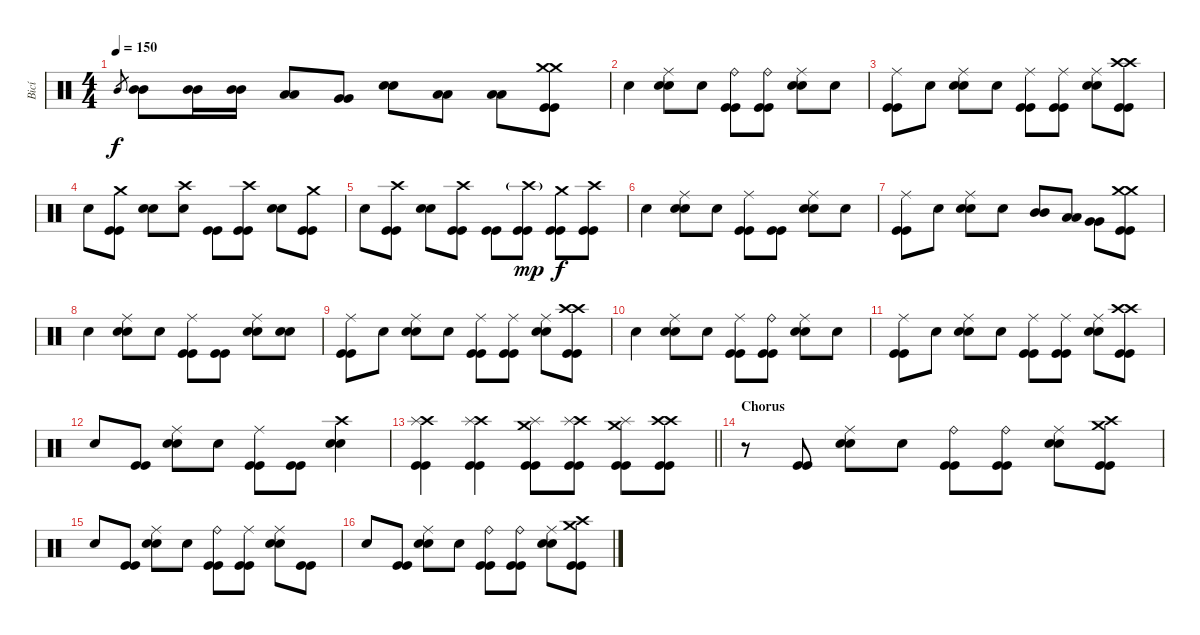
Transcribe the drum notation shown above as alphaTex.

\track ("Bicí" "Bicí") {instrument percussion}
\staff {score}
\articulation defaults
\ts (4 4)
\tempo 150
\clef neutral
\ks c "Mid Tom (hit)".8{gr dy f}
("Mid Tom (hit)" "Mid Tom (hit)").8 ("Mid Tom (hit)" "Mid Tom (hit)").16 ("Mid Tom (hit)" "Mid Tom (hit)").16 ("Low Tom (hit)" "Low Tom (hit)").8 ("Very Low Tom (hit)" "Very Low Tom (hit)").8 ("Electric Snare (hit)" "Electric Snare (hit)").8 ("Low Floor Tom (hit)" "Low Floor Tom (hit)").8 ("Low Floor Tom (hit)" "Low Floor Tom (hit)").8 ("Crash medium (hit)" "Crash medium (hit)" "Kick (hit)" "Kick (hit)").8 |
"Snare (hit)".4 ("Ride (middle)" "Electric Snare (hit)" "Electric Snare (hit)").8 "Snare (hit)".8 ("Ride (bell)" "Kick (hit)" "Kick (hit)").8 ("Ride (bell)" "Kick (hit)" "Kick (hit)").8 ("Ride (middle)" "Electric Snare (hit)" "Electric Snare (hit)").8 "Snare (hit)".8 |
("Ride (middle)" "Kick (hit)" "Kick (hit)").8 "Snare (hit)".8 ("Ride (middle)" "Electric Snare (hit)" "Electric Snare (hit)").8 "Snare (hit)".8 ("Ride (middle)" "Kick (hit)" "Kick (hit)").8 ("Ride (middle)" "Kick (hit)" "Kick (hit)").8 ("Ride (middle)" "Electric Snare (hit)" "Electric Snare (hit)").8 ("Crash high (hit)" "Crash high (hit)" "Kick (hit)" "Kick (hit)").8 |
"Snare (hit)".8 ("Crash medium (hit)" "Kick (hit)" "Kick (hit)").8 ("Electric Snare (hit)" "Electric Snare (hit)").8 ("Crash high (hit)" "Snare (hit)").8 ("Kick (hit)" "Kick (hit)").8 ("Crash high (hit)" "Kick (hit)" "Kick (hit)").8 ("Electric Snare (hit)" "Electric Snare (hit)").8 ("Crash medium (hit)" "Kick (hit)" "Kick (hit)").8 |
"Snare (hit)".8 ("Crash high (hit)" "Kick (hit)" "Kick (hit)").8 ("Electric Snare (hit)" "Electric Snare (hit)").8 ("Crash high (hit)" "Kick (hit)" "Kick (hit)").8 ("Kick (hit)" "Kick (hit)").8 ("Crash high (hit)"{g} "Kick (hit)" "Kick (hit)").8{dy mp} ("Crash medium (hit)" "Kick (hit)" "Kick (hit)").8{dy f} ("Crash high (hit)" "Kick (hit)" "Kick (hit)").8 |
"Snare (hit)".4 ("Ride (middle)" "Electric Snare (hit)" "Electric Snare (hit)").8 "Snare (hit)".8 ("Ride (middle)" "Kick (hit)" "Kick (hit)").8 ("Kick (hit)" "Kick (hit)").8 ("Ride (middle)" "Electric Snare (hit)" "Electric Snare (hit)").8 "Snare (hit)".8 |
("Ride (middle)" "Kick (hit)" "Kick (hit)").8 "Snare (hit)".8 ("Ride (middle)" "Electric Snare (hit)" "Electric Snare (hit)").8 "Snare (hit)".8 ("Mid Tom (hit)" "Mid Tom (hit)").8 ("Low Tom (hit)" "Low Tom (hit)").8 ("Very Low Tom (hit)" "Very Low Tom (hit)").8 ("Crash medium (hit)" "Crash medium (hit)" "Kick (hit)" "Kick (hit)").8 |
"Snare (hit)".4 ("Ride (middle)" "Electric Snare (hit)" "Electric Snare (hit)").8 "Snare (hit)".8 ("Ride (middle)" "Kick (hit)" "Kick (hit)").8 ("Kick (hit)" "Kick (hit)").8 ("Ride (middle)" "Electric Snare (hit)" "Electric Snare (hit)").8 ("Snare (hit)" "Snare (hit)").8 |
("Ride (middle)" "Kick (hit)" "Kick (hit)").8 "Snare (hit)".8 ("Ride (middle)" "Electric Snare (hit)" "Electric Snare (hit)").8 "Snare (hit)".8 ("Ride (middle)" "Kick (hit)" "Kick (hit)").8 ("Ride (middle)" "Kick (hit)" "Kick (hit)").8 ("Ride (middle)" "Electric Snare (hit)" "Electric Snare (hit)").8 ("Crash high (hit)" "Crash high (hit)" "Kick (hit)" "Kick (hit)").8 |
"Snare (hit)".4 ("Ride (middle)" "Electric Snare (hit)" "Electric Snare (hit)").8 "Snare (hit)".8 ("Ride (middle)" "Kick (hit)" "Kick (hit)").8 ("Ride (bell)" "Kick (hit)" "Kick (hit)").8 ("Ride (middle)" "Electric Snare (hit)" "Electric Snare (hit)").8 "Snare (hit)".8 |
("Ride (middle)" "Kick (hit)" "Kick (hit)").8 "Snare (hit)".8 ("Ride (middle)" "Electric Snare (hit)" "Electric Snare (hit)").8 "Snare (hit)".8 ("Ride (middle)" "Kick (hit)" "Kick (hit)").8 ("Ride (middle)" "Kick (hit)" "Kick (hit)").8 ("Ride (middle)" "Electric Snare (hit)" "Electric Snare (hit)").8 ("Crash high (hit)" "Crash high (hit)" "Kick (hit)" "Kick (hit)").8 |
"Snare (hit)".8 ("Kick (hit)" "Kick (hit)").8 ("Ride (middle)" "Electric Snare (hit)" "Electric Snare (hit)").8 "Snare (hit)".8 ("Ride (middle)" "Kick (hit)" "Kick (hit)").8 ("Kick (hit)" "Kick (hit)").8 ("Crash high (hit)" "Electric Snare (hit)" "Electric Snare (hit)").4 |
\barLineRight lightlight
("Crash high (hit)" "Splash (hit)" "Kick (hit)" "Kick (hit)").4 ("Crash high (hit)" "Splash (hit)" "Kick (hit)" "Kick (hit)").4 ("Crash medium (hit)" "Splash (hit)" "Kick (hit)" "Kick (hit)").8 ("Crash high (hit)" "Splash (hit)" "Kick (hit)" "Kick (hit)").8 ("Crash medium (hit)" "Splash (hit)" "Kick (hit)" "Kick (hit)").8 ("Crash high (hit)" "Crash high (hit)" "Kick (hit)" "Kick (hit)").8 |
\section ("" "Chorus")
r.8 ("Kick (hit)" "Kick (hit)").8 ("Ride (middle)" "Electric Snare (hit)" "Electric Snare (hit)").8 "Snare (hit)".8 ("Ride (bell)" "Kick (hit)" "Kick (hit)").8 ("Ride (bell)" "Kick (hit)" "Kick (hit)").8 ("Ride (middle)" "Electric Snare (hit)" "Electric Snare (hit)").8 ("Crash high (hit)" "Crash medium (hit)" "Kick (hit)" "Kick (hit)").8 |
"Snare (hit)".8 ("Kick (hit)" "Kick (hit)").8 ("Ride (middle)" "Electric Snare (hit)" "Electric Snare (hit)").8 "Snare (hit)".8 ("Ride (bell)" "Kick (hit)" "Kick (hit)").8 ("Ride (middle)" "Kick (hit)" "Kick (hit)").8 ("Ride (middle)" "Electric Snare (hit)" "Electric Snare (hit)").8 ("Kick (hit)" "Kick (hit)").8 |
"Snare (hit)".8 ("Kick (hit)" "Kick (hit)").8 ("Ride (middle)" "Electric Snare (hit)" "Electric Snare (hit)").8 "Snare (hit)".8 ("Ride (bell)" "Kick (hit)" "Kick (hit)").8 ("Ride (bell)" "Kick (hit)" "Kick (hit)").8 ("Ride (middle)" "Electric Snare (hit)" "Electric Snare (hit)").8 ("Crash high (hit)" "Crash medium (hit)" "Kick (hit)" "Kick (hit)").8
